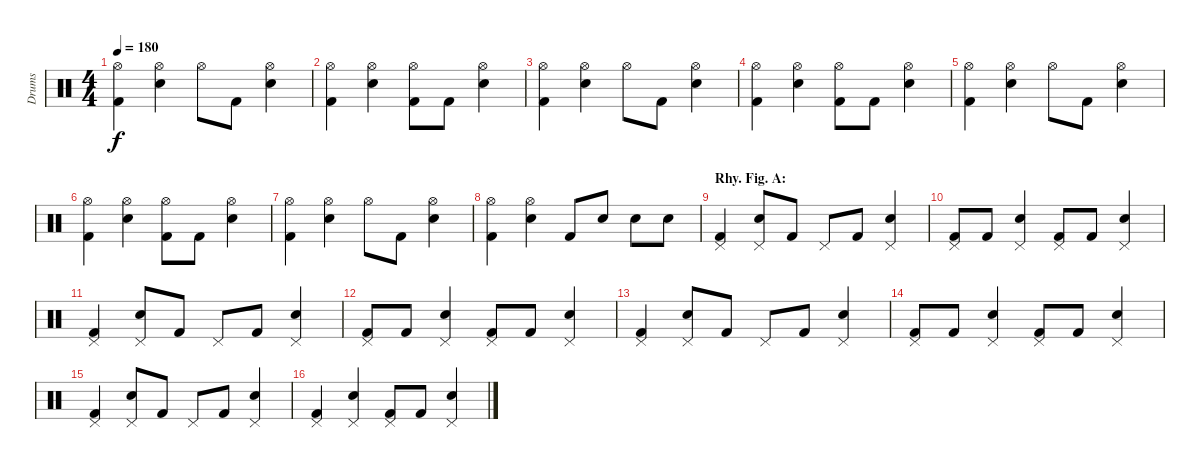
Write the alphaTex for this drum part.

\track ("Drums" "Drums") {instrument percussion}
\staff {score}
\articulation defaults
\ts (4 4)
\tempo 180
\clef neutral
\ks c
("Hi-Hat (open)" "Kick (hit) 2").4{dy f} ("Hi-Hat (open)" "Electric Snare (hit)").4 "Hi-Hat (open)".8 "Kick (hit) 2".8 ("Hi-Hat (open)" "Electric Snare (hit)").4 |
("Hi-Hat (open)" "Kick (hit) 2").4 ("Hi-Hat (open)" "Electric Snare (hit)").4 ("Hi-Hat (open)" "Kick (hit) 2").8 "Kick (hit) 2".8 ("Hi-Hat (open)" "Electric Snare (hit)").4 |
("Hi-Hat (open)" "Kick (hit) 2").4 ("Hi-Hat (open)" "Electric Snare (hit)").4 "Hi-Hat (open)".8 "Kick (hit) 2".8 ("Hi-Hat (open)" "Electric Snare (hit)").4 |
("Hi-Hat (open)" "Kick (hit) 2").4 ("Hi-Hat (open)" "Electric Snare (hit)").4 ("Hi-Hat (open)" "Kick (hit) 2").8 "Kick (hit) 2".8 ("Hi-Hat (open)" "Electric Snare (hit)").4 |
("Hi-Hat (open)" "Kick (hit) 2").4 ("Hi-Hat (open)" "Electric Snare (hit)").4 "Hi-Hat (open)".8 "Kick (hit) 2".8 ("Hi-Hat (open)" "Electric Snare (hit)").4 |
("Hi-Hat (open)" "Kick (hit) 2").4 ("Hi-Hat (open)" "Electric Snare (hit)").4 ("Hi-Hat (open)" "Kick (hit) 2").8 "Kick (hit) 2".8 ("Hi-Hat (open)" "Electric Snare (hit)").4 |
("Hi-Hat (open)" "Kick (hit) 2").4 ("Hi-Hat (open)" "Electric Snare (hit)").4 "Hi-Hat (open)".8 "Kick (hit) 2".8 ("Hi-Hat (open)" "Electric Snare (hit)").4 |
("Hi-Hat (open)" "Kick (hit) 2").4 ("Hi-Hat (open)" "Electric Snare (hit)").4 "Kick (hit) 2".8 "Electric Snare (hit)".8 "Electric Snare (hit)".8 "Electric Snare (hit)".8 |
\section ("" "Rhy. Fig. A:")
("Pedal Hi-Hat (hit)" "Kick (hit) 2").4 ("Pedal Hi-Hat (hit)" "Electric Snare (hit)").8 "Kick (hit) 2".8 "Pedal Hi-Hat (hit)".8 "Kick (hit) 2".8 ("Pedal Hi-Hat (hit)" "Electric Snare (hit)").4 |
("Pedal Hi-Hat (hit)" "Kick (hit) 2").8 "Kick (hit) 2".8 ("Pedal Hi-Hat (hit)" "Electric Snare (hit)").4 ("Pedal Hi-Hat (hit)" "Kick (hit) 2").8 "Kick (hit) 2".8 ("Pedal Hi-Hat (hit)" "Electric Snare (hit)").4 |
("Pedal Hi-Hat (hit)" "Kick (hit) 2").4 ("Pedal Hi-Hat (hit)" "Electric Snare (hit)").8 "Kick (hit) 2".8 "Pedal Hi-Hat (hit)".8 "Kick (hit) 2".8 ("Pedal Hi-Hat (hit)" "Electric Snare (hit)").4 |
("Pedal Hi-Hat (hit)" "Kick (hit) 2").8 "Kick (hit) 2".8 ("Pedal Hi-Hat (hit)" "Electric Snare (hit)").4 ("Pedal Hi-Hat (hit)" "Kick (hit) 2").8 "Kick (hit) 2".8 ("Pedal Hi-Hat (hit)" "Electric Snare (hit)").4 |
("Pedal Hi-Hat (hit)" "Kick (hit) 2").4 ("Pedal Hi-Hat (hit)" "Electric Snare (hit)").8 "Kick (hit) 2".8 "Pedal Hi-Hat (hit)".8 "Kick (hit) 2".8 ("Pedal Hi-Hat (hit)" "Electric Snare (hit)").4 |
("Pedal Hi-Hat (hit)" "Kick (hit) 2").8 "Kick (hit) 2".8 ("Pedal Hi-Hat (hit)" "Electric Snare (hit)").4 ("Pedal Hi-Hat (hit)" "Kick (hit) 2").8 "Kick (hit) 2".8 ("Pedal Hi-Hat (hit)" "Electric Snare (hit)").4 |
("Pedal Hi-Hat (hit)" "Kick (hit) 2").4 ("Pedal Hi-Hat (hit)" "Electric Snare (hit)").8 "Kick (hit) 2".8 "Pedal Hi-Hat (hit)".8 "Kick (hit) 2".8 ("Pedal Hi-Hat (hit)" "Electric Snare (hit)").4 |
("Pedal Hi-Hat (hit)" "Kick (hit) 2").4 ("Pedal Hi-Hat (hit)" "Electric Snare (hit)").4 ("Pedal Hi-Hat (hit)" "Kick (hit) 2").8 "Kick (hit) 2".8 ("Pedal Hi-Hat (hit)" "Electric Snare (hit)").4
